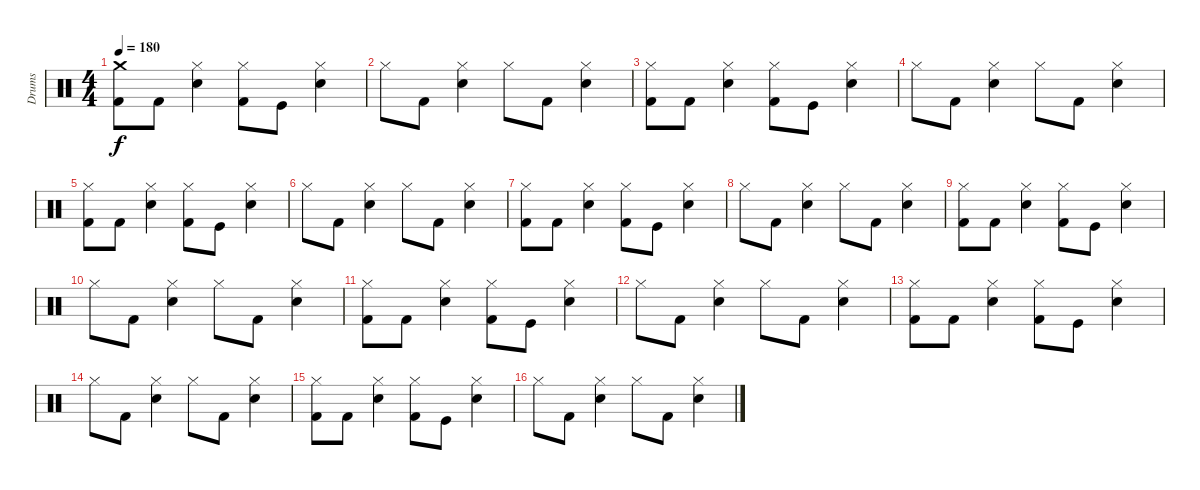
\track ("Drums" "Drums") {instrument percussion}
\staff {score}
\articulation defaults
\ts (4 4)
\tempo 180
\clef neutral
\ks c
("Crash medium (hit)" "Kick (hit) 2").8{dy f} "Kick (hit) 2".8 ("Hi-Hat (closed)" "Electric Snare (hit)").4 ("Hi-Hat (closed)" "Kick (hit) 2").8 "Kick (hit)".8 ("Hi-Hat (closed)" "Electric Snare (hit)").4 |
"Hi-Hat (closed)".8 "Kick (hit) 2".8 ("Hi-Hat (closed)" "Electric Snare (hit)").4 "Hi-Hat (closed)".8 "Kick (hit) 2".8 ("Hi-Hat (closed)" "Electric Snare (hit)").4 |
("Hi-Hat (closed)" "Kick (hit) 2").8 "Kick (hit) 2".8 ("Hi-Hat (closed)" "Electric Snare (hit)").4 ("Hi-Hat (closed)" "Kick (hit) 2").8 "Kick (hit)".8 ("Hi-Hat (closed)" "Electric Snare (hit)").4 |
"Hi-Hat (closed)".8 "Kick (hit) 2".8 ("Hi-Hat (closed)" "Electric Snare (hit)").4 "Hi-Hat (closed)".8 "Kick (hit) 2".8 ("Hi-Hat (closed)" "Electric Snare (hit)").4 |
("Hi-Hat (closed)" "Kick (hit) 2").8 "Kick (hit) 2".8 ("Hi-Hat (closed)" "Electric Snare (hit)").4 ("Hi-Hat (closed)" "Kick (hit) 2").8 "Kick (hit)".8 ("Hi-Hat (closed)" "Electric Snare (hit)").4 |
"Hi-Hat (closed)".8 "Kick (hit) 2".8 ("Hi-Hat (closed)" "Electric Snare (hit)").4 "Hi-Hat (closed)".8 "Kick (hit) 2".8 ("Hi-Hat (closed)" "Electric Snare (hit)").4 |
("Hi-Hat (closed)" "Kick (hit) 2").8 "Kick (hit) 2".8 ("Hi-Hat (closed)" "Electric Snare (hit)").4 ("Hi-Hat (closed)" "Kick (hit) 2").8 "Kick (hit)".8 ("Hi-Hat (closed)" "Electric Snare (hit)").4 |
"Hi-Hat (closed)".8 "Kick (hit) 2".8 ("Hi-Hat (closed)" "Electric Snare (hit)").4 "Hi-Hat (closed)".8 "Kick (hit) 2".8 ("Hi-Hat (closed)" "Electric Snare (hit)").4 |
("Hi-Hat (closed)" "Kick (hit) 2").8 "Kick (hit) 2".8 ("Hi-Hat (closed)" "Electric Snare (hit)").4 ("Hi-Hat (closed)" "Kick (hit) 2").8 "Kick (hit)".8 ("Hi-Hat (closed)" "Electric Snare (hit)").4 |
"Hi-Hat (closed)".8 "Kick (hit) 2".8 ("Hi-Hat (closed)" "Electric Snare (hit)").4 "Hi-Hat (closed)".8 "Kick (hit) 2".8 ("Hi-Hat (closed)" "Electric Snare (hit)").4 |
("Hi-Hat (closed)" "Kick (hit) 2").8 "Kick (hit) 2".8 ("Hi-Hat (closed)" "Electric Snare (hit)").4 ("Hi-Hat (closed)" "Kick (hit) 2").8 "Kick (hit)".8 ("Hi-Hat (closed)" "Electric Snare (hit)").4 |
"Hi-Hat (closed)".8 "Kick (hit) 2".8 ("Hi-Hat (closed)" "Electric Snare (hit)").4 "Hi-Hat (closed)".8 "Kick (hit) 2".8 ("Hi-Hat (closed)" "Electric Snare (hit)").4 |
("Hi-Hat (closed)" "Kick (hit) 2").8 "Kick (hit) 2".8 ("Hi-Hat (closed)" "Electric Snare (hit)").4 ("Hi-Hat (closed)" "Kick (hit) 2").8 "Kick (hit)".8 ("Hi-Hat (closed)" "Electric Snare (hit)").4 |
"Hi-Hat (closed)".8 "Kick (hit) 2".8 ("Hi-Hat (closed)" "Electric Snare (hit)").4 "Hi-Hat (closed)".8 "Kick (hit) 2".8 ("Hi-Hat (closed)" "Electric Snare (hit)").4 |
("Hi-Hat (closed)" "Kick (hit) 2").8 "Kick (hit) 2".8 ("Hi-Hat (closed)" "Electric Snare (hit)").4 ("Hi-Hat (closed)" "Kick (hit) 2").8 "Kick (hit)".8 ("Hi-Hat (closed)" "Electric Snare (hit)").4 |
"Hi-Hat (closed)".8 "Kick (hit) 2".8 ("Hi-Hat (closed)" "Electric Snare (hit)").4 "Hi-Hat (closed)".8 "Kick (hit) 2".8 ("Hi-Hat (closed)" "Electric Snare (hit)").4
